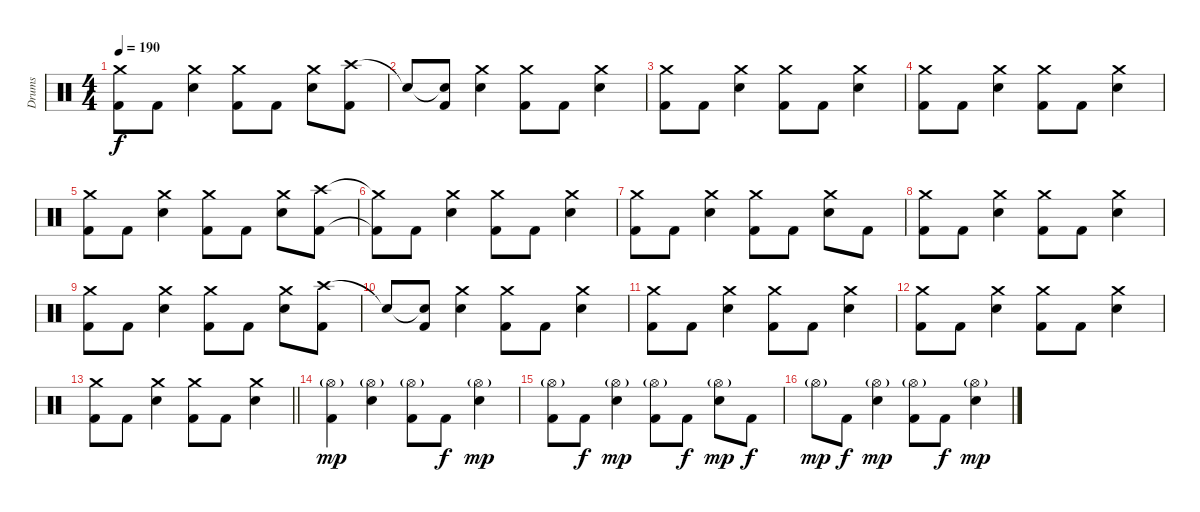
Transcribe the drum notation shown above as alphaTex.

\track ("Drums" "Drums") {instrument percussion}
\staff {score}
\articulation defaults
\ts (4 4)
\tempo 190
\clef neutral
\ks c
("Crash medium (hit)" "Kick (hit) 2").8{dy f} "Kick (hit) 2".8 ("Crash medium (hit)" "Electric Snare (hit)").4 ("Crash medium (hit)" "Kick (hit) 2").8 "Kick (hit) 2".8 ("Crash medium (hit)" "Electric Snare (hit)").8 ("Crash high (hit)" "Kick (hit) 2").8 |
"Snare (hit)"{t}.8 ("Snare (hit)"{t} "Kick (hit) 2").8 ("Crash medium (hit)" "Electric Snare (hit)").4 ("Crash medium (hit)" "Kick (hit) 2").8 "Kick (hit) 2".8 ("Crash medium (hit)" "Electric Snare (hit)").4 |
("Crash medium (hit)" "Kick (hit) 2").8 "Kick (hit) 2".8 ("Crash medium (hit)" "Electric Snare (hit)").4 ("Crash medium (hit)" "Kick (hit) 2").8 "Kick (hit) 2".8 ("Crash medium (hit)" "Electric Snare (hit)").4 |
("Crash medium (hit)" "Kick (hit) 2").8 "Kick (hit) 2".8 ("Crash medium (hit)" "Electric Snare (hit)").4 ("Crash medium (hit)" "Kick (hit) 2").8 "Kick (hit) 2".8 ("Crash medium (hit)" "Electric Snare (hit)").4 |
("Crash medium (hit)" "Kick (hit) 2").8 "Kick (hit) 2".8 ("Crash medium (hit)" "Electric Snare (hit)").4 ("Crash medium (hit)" "Kick (hit) 2").8 "Kick (hit) 2".8 ("Crash medium (hit)" "Electric Snare (hit)").8 ("Crash high (hit)" "Kick (hit) 2").8 |
("Crash medium (hit)"{t} "Kick (hit) 2"{t}).8 "Kick (hit) 2".8 ("Crash medium (hit)" "Electric Snare (hit)").4 ("Crash medium (hit)" "Kick (hit) 2").8 "Kick (hit) 2".8 ("Crash medium (hit)" "Electric Snare (hit)").4 |
("Crash medium (hit)" "Kick (hit) 2").8 "Kick (hit) 2".8 ("Crash medium (hit)" "Electric Snare (hit)").4 ("Crash medium (hit)" "Kick (hit) 2").8 "Kick (hit) 2".8 ("Crash medium (hit)" "Electric Snare (hit)").8 "Kick (hit) 2".8 |
("Crash medium (hit)" "Kick (hit) 2").8 "Kick (hit) 2".8 ("Crash medium (hit)" "Electric Snare (hit)").4 ("Crash medium (hit)" "Kick (hit) 2").8 "Kick (hit) 2".8 ("Crash medium (hit)" "Electric Snare (hit)").4 |
("Crash medium (hit)" "Kick (hit) 2").8 "Kick (hit) 2".8 ("Crash medium (hit)" "Electric Snare (hit)").4 ("Crash medium (hit)" "Kick (hit) 2").8 "Kick (hit) 2".8 ("Crash medium (hit)" "Electric Snare (hit)").8 ("Crash high (hit)" "Kick (hit) 2").8 |
"Snare (hit)"{t}.8 ("Snare (hit)"{t} "Kick (hit) 2").8 ("Crash medium (hit)" "Electric Snare (hit)").4 ("Crash medium (hit)" "Kick (hit) 2").8 "Kick (hit) 2".8 ("Crash medium (hit)" "Electric Snare (hit)").4 |
("Crash medium (hit)" "Kick (hit) 2").8 "Kick (hit) 2".8 ("Crash medium (hit)" "Electric Snare (hit)").4 ("Crash medium (hit)" "Kick (hit) 2").8 "Kick (hit) 2".8 ("Crash medium (hit)" "Electric Snare (hit)").4 |
("Crash medium (hit)" "Kick (hit) 2").8 "Kick (hit) 2".8 ("Crash medium (hit)" "Electric Snare (hit)").4 ("Crash medium (hit)" "Kick (hit) 2").8 "Kick (hit) 2".8 ("Crash medium (hit)" "Electric Snare (hit)").4 |
\barLineRight lightlight
("Crash medium (hit)" "Kick (hit) 2").8 "Kick (hit) 2".8 ("Crash medium (hit)" "Electric Snare (hit)").4 ("Crash medium (hit)" "Kick (hit) 2").8 "Kick (hit) 2".8 ("Crash medium (hit)" "Electric Snare (hit)").4 |
("Hi-Hat (open)"{g} "Kick (hit) 2").4{dy mp} ("Hi-Hat (open)"{g} "Electric Snare (hit)").4 ("Hi-Hat (open)"{g} "Kick (hit) 2").8 "Kick (hit) 2".8{dy f} ("Hi-Hat (open)"{g} "Electric Snare (hit)").4{dy mp} |
("Hi-Hat (open)"{g} "Kick (hit) 2").8 "Kick (hit) 2".8{dy f} ("Hi-Hat (open)"{g} "Electric Snare (hit)").4{dy mp} ("Hi-Hat (open)"{g} "Kick (hit) 2").8 "Kick (hit) 2".8{dy f} ("Hi-Hat (open)"{g} "Electric Snare (hit)").8{dy mp} "Kick (hit) 2".8{dy f} |
"Hi-Hat (open)"{g}.8{dy mp} "Kick (hit) 2".8{dy f} ("Hi-Hat (open)"{g} "Electric Snare (hit)").4{dy mp} ("Hi-Hat (open)"{g} "Kick (hit) 2").8 "Kick (hit) 2".8{dy f} ("Hi-Hat (open)"{g} "Electric Snare (hit)").4{dy mp}
